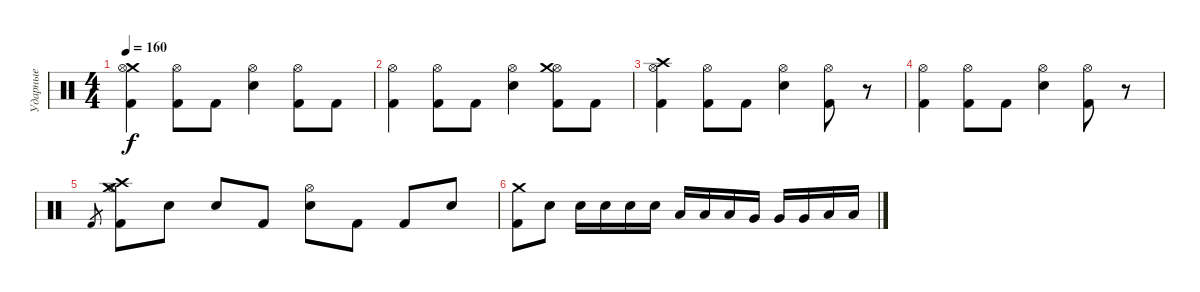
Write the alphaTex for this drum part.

\track ("Ударные" "Ударные") {instrument percussion}
\staff {score}
\articulation defaults
\ts (4 4)
\tempo 160
\clef neutral
\ks c
("Kick (hit) 2" "Crash medium (hit)" "Hi-Hat (open)").4{dy f} ("Kick (hit) 2" "Hi-Hat (open)").8 "Kick (hit) 2".8 ("Hi-Hat (open)" "Snare (hit) 2").4 ("Kick (hit) 2" "Hi-Hat (open)").8 "Kick (hit) 2".8 |
("Kick (hit) 2" "Hi-Hat (open)").4 ("Kick (hit) 2" "Hi-Hat (open)").8 "Kick (hit) 2".8 ("Hi-Hat (open)" "Snare (hit) 2").4 ("Kick (hit) 2" "Hi-Hat (open)" "Crash medium (hit)").8 "Kick (hit) 2".8 |
("Kick (hit) 2" "Hi-Hat (open)" "Crash high (hit)").4 ("Kick (hit) 2" "Hi-Hat (open)").8 "Kick (hit) 2".8 ("Hi-Hat (open)" "Snare (hit) 2").4 ("Kick (hit) 2" "Hi-Hat (open)").8 r.8 |
("Kick (hit) 2" "Hi-Hat (open)").4 ("Kick (hit) 2" "Hi-Hat (open)").8 "Kick (hit) 2".8 ("Hi-Hat (open)" "Snare (hit) 2").4 ("Kick (hit) 2" "Hi-Hat (open)").8 r.8 |
"Kick (hit) 2".8{gr} ("Kick (hit) 2" "Hi-Hat (open)" "Crash high (hit)" "Crash medium (hit)").8 "Snare (hit) 2".8 "Snare (hit) 2".8 "Kick (hit) 2".8 ("Snare (hit) 2" "Hi-Hat (open)").8 "Kick (hit) 2".8 "Kick (hit) 2".8 "Snare (hit) 2".8 |
("Kick (hit) 2" "Crash medium (hit)").8 "Snare (hit) 2".8 "Snare (hit) 2".16 "Snare (hit) 2".16 "Snare (hit) 2".16 "Snare (hit) 2".16 "Low Tom (hit)".16 "Low Tom (hit)".16 "Low Tom (hit)".16 "Very Low Tom (hit)".16 "Very Low Tom (hit)".16 "Very Low Tom (hit)".16 "Low Tom (hit)".16 "Low Tom (hit)".16
